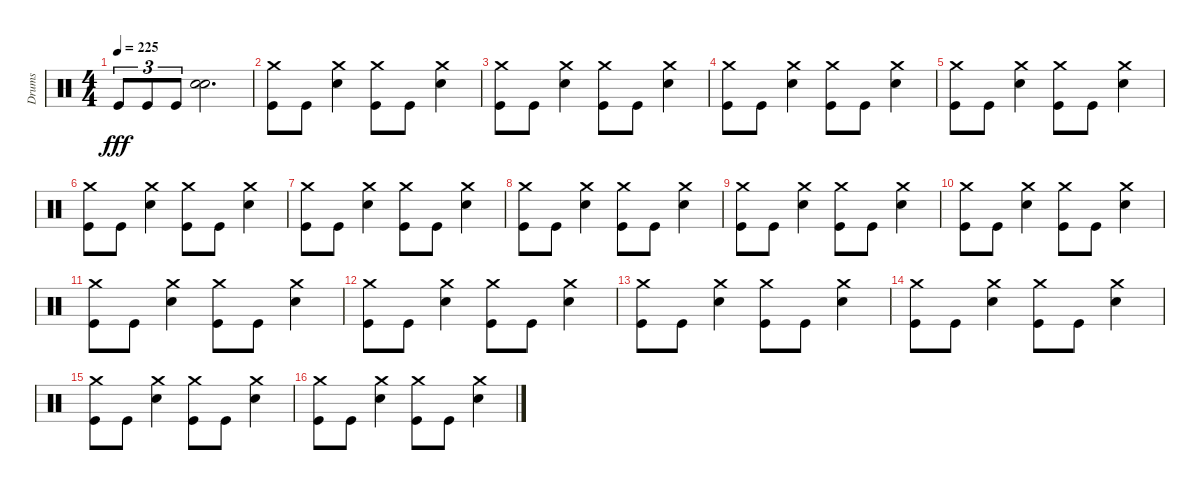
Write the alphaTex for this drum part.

\track ("Drums" "Drums") {instrument percussion}
\staff {score}
\articulation defaults
\ts (4 4)
\tempo 225
\clef neutral
\ks c "Kick (hit)".8{tu (3 2) dy fff} "Kick (hit)".8{tu (3 2)} "Kick (hit)".8{tu (3 2)}
("Snare (hit) 2" "Snare (hit) 2").2{d} |
("Kick (hit)" "Crash medium (hit)").8 "Kick (hit)".8 ("Snare (hit) 2" "Crash medium (hit)").4 ("Kick (hit)" "Crash medium (hit)").8 "Kick (hit)".8 ("Snare (hit) 2" "Crash medium (hit)").4 |
("Kick (hit)" "Crash medium (hit)").8 "Kick (hit)".8 ("Snare (hit) 2" "Crash medium (hit)").4 ("Kick (hit)" "Crash medium (hit)").8 "Kick (hit)".8 ("Snare (hit) 2" "Crash medium (hit)").4 |
("Kick (hit)" "Crash medium (hit)").8 "Kick (hit)".8 ("Snare (hit) 2" "Crash medium (hit)").4 ("Kick (hit)" "Crash medium (hit)").8 "Kick (hit)".8 ("Snare (hit) 2" "Crash medium (hit)").4 |
("Kick (hit)" "Crash medium (hit)").8 "Kick (hit)".8 ("Snare (hit) 2" "Crash medium (hit)").4 ("Kick (hit)" "Crash medium (hit)").8 "Kick (hit)".8 ("Snare (hit) 2" "Crash medium (hit)").4 |
("Kick (hit)" "Crash medium (hit)").8 "Kick (hit)".8 ("Snare (hit) 2" "Crash medium (hit)").4 ("Kick (hit)" "Crash medium (hit)").8 "Kick (hit)".8 ("Snare (hit) 2" "Crash medium (hit)").4 |
("Kick (hit)" "Crash medium (hit)").8 "Kick (hit)".8 ("Snare (hit) 2" "Crash medium (hit)").4 ("Kick (hit)" "Crash medium (hit)").8 "Kick (hit)".8 ("Snare (hit) 2" "Crash medium (hit)").4 |
("Kick (hit)" "Crash medium (hit)").8 "Kick (hit)".8 ("Snare (hit) 2" "Crash medium (hit)").4 ("Kick (hit)" "Crash medium (hit)").8 "Kick (hit)".8 ("Snare (hit) 2" "Crash medium (hit)").4 |
("Kick (hit)" "Crash medium (hit)").8 "Kick (hit)".8 ("Snare (hit) 2" "Crash medium (hit)").4 ("Kick (hit)" "Crash medium (hit)").8 "Kick (hit)".8 ("Snare (hit) 2" "Crash medium (hit)").4 |
("Kick (hit)" "Crash medium (hit)").8 "Kick (hit)".8 ("Snare (hit) 2" "Crash medium (hit)").4 ("Kick (hit)" "Crash medium (hit)").8 "Kick (hit)".8 ("Snare (hit) 2" "Crash medium (hit)").4 |
("Kick (hit)" "Crash medium (hit)").8 "Kick (hit)".8 ("Snare (hit) 2" "Crash medium (hit)").4 ("Kick (hit)" "Crash medium (hit)").8 "Kick (hit)".8 ("Snare (hit) 2" "Crash medium (hit)").4 |
("Kick (hit)" "Crash medium (hit)").8 "Kick (hit)".8 ("Snare (hit) 2" "Crash medium (hit)").4 ("Kick (hit)" "Crash medium (hit)").8 "Kick (hit)".8 ("Snare (hit) 2" "Crash medium (hit)").4 |
("Kick (hit)" "Crash medium (hit)").8 "Kick (hit)".8 ("Snare (hit) 2" "Crash medium (hit)").4 ("Kick (hit)" "Crash medium (hit)").8 "Kick (hit)".8 ("Snare (hit) 2" "Crash medium (hit)").4 |
("Kick (hit)" "Crash medium (hit)").8 "Kick (hit)".8 ("Snare (hit) 2" "Crash medium (hit)").4 ("Kick (hit)" "Crash medium (hit)").8 "Kick (hit)".8 ("Snare (hit) 2" "Crash medium (hit)").4 |
("Kick (hit)" "Crash medium (hit)").8 "Kick (hit)".8 ("Snare (hit) 2" "Crash medium (hit)").4 ("Kick (hit)" "Crash medium (hit)").8 "Kick (hit)".8 ("Snare (hit) 2" "Crash medium (hit)").4 |
("Kick (hit)" "Crash medium (hit)").8 "Kick (hit)".8 ("Snare (hit) 2" "Crash medium (hit)").4 ("Kick (hit)" "Crash medium (hit)").8 "Kick (hit)".8 ("Snare (hit) 2" "Crash medium (hit)").4
